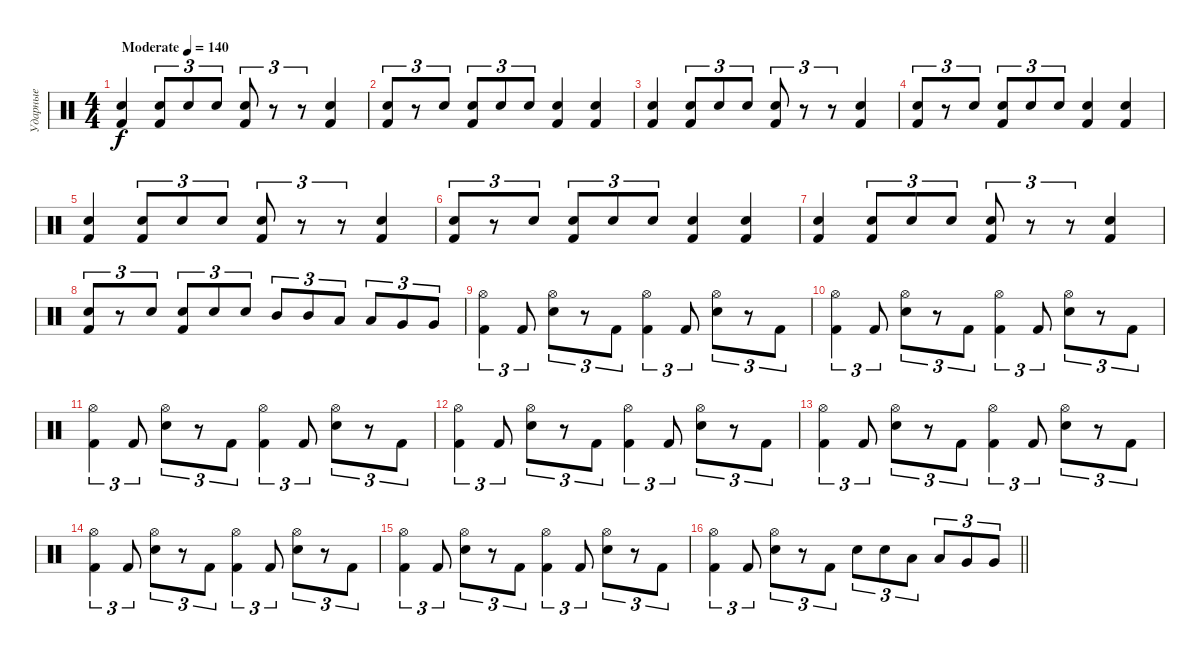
\track ("Ударные" "Ударные") {instrument percussion}
\staff {score}
\articulation defaults
\ts (4 4)
\tempo (140 "Moderate")
\clef neutral
\ks c
("Electric Snare (hit)" "Kick (hit) 2").4{dy f} ("Electric Snare (hit)" "Kick (hit) 2").8{tu (3 2)} "Electric Snare (hit)".8{tu (3 2)} "Electric Snare (hit)".8{tu (3 2)} ("Electric Snare (hit)" "Kick (hit) 2").8{tu (3 2)} r.8{tu (3 2)} r.8{tu (3 2)} ("Electric Snare (hit)" "Kick (hit) 2").4 |
("Electric Snare (hit)" "Kick (hit) 2").8{tu (3 2)} r.8{tu (3 2)} "Electric Snare (hit)".8{tu (3 2)} ("Electric Snare (hit)" "Kick (hit) 2").8{tu (3 2)} "Electric Snare (hit)".8{tu (3 2)} "Electric Snare (hit)".8{tu (3 2)} ("Electric Snare (hit)" "Kick (hit) 2").4 ("Electric Snare (hit)" "Kick (hit) 2").4 |
("Electric Snare (hit)" "Kick (hit) 2").4 ("Electric Snare (hit)" "Kick (hit) 2").8{tu (3 2)} "Electric Snare (hit)".8{tu (3 2)} "Electric Snare (hit)".8{tu (3 2)} ("Electric Snare (hit)" "Kick (hit) 2").8{tu (3 2)} r.8{tu (3 2)} r.8{tu (3 2)} ("Electric Snare (hit)" "Kick (hit) 2").4 |
("Electric Snare (hit)" "Kick (hit) 2").8{tu (3 2)} r.8{tu (3 2)} "Electric Snare (hit)".8{tu (3 2)} ("Electric Snare (hit)" "Kick (hit) 2").8{tu (3 2)} "Electric Snare (hit)".8{tu (3 2)} "Electric Snare (hit)".8{tu (3 2)} ("Electric Snare (hit)" "Kick (hit) 2").4 ("Electric Snare (hit)" "Kick (hit) 2").4 |
("Electric Snare (hit)" "Kick (hit) 2").4 ("Electric Snare (hit)" "Kick (hit) 2").8{tu (3 2)} "Electric Snare (hit)".8{tu (3 2)} "Electric Snare (hit)".8{tu (3 2)} ("Electric Snare (hit)" "Kick (hit) 2").8{tu (3 2)} r.8{tu (3 2)} r.8{tu (3 2)} ("Electric Snare (hit)" "Kick (hit) 2").4 |
("Electric Snare (hit)" "Kick (hit) 2").8{tu (3 2)} r.8{tu (3 2)} "Electric Snare (hit)".8{tu (3 2)} ("Electric Snare (hit)" "Kick (hit) 2").8{tu (3 2)} "Electric Snare (hit)".8{tu (3 2)} "Electric Snare (hit)".8{tu (3 2)} ("Electric Snare (hit)" "Kick (hit) 2").4 ("Electric Snare (hit)" "Kick (hit) 2").4 |
("Electric Snare (hit)" "Kick (hit) 2").4 ("Electric Snare (hit)" "Kick (hit) 2").8{tu (3 2)} "Electric Snare (hit)".8{tu (3 2)} "Electric Snare (hit)".8{tu (3 2)} ("Electric Snare (hit)" "Kick (hit) 2").8{tu (3 2)} r.8{tu (3 2)} r.8{tu (3 2)} ("Electric Snare (hit)" "Kick (hit) 2").4 |
("Electric Snare (hit)" "Kick (hit) 2").8{tu (3 2)} r.8{tu (3 2)} "Electric Snare (hit)".8{tu (3 2)} ("Electric Snare (hit)" "Kick (hit) 2").8{tu (3 2)} "Electric Snare (hit)".8{tu (3 2)} "Electric Snare (hit)".8{tu (3 2)} "Mid Tom (hit)".8{tu (3 2)} "Mid Tom (hit)".8{tu (3 2)} "Low Tom (hit)".8{tu (3 2)} "Low Tom (hit)".8{tu (3 2)} "Very Low Tom (hit)".8{tu (3 2)} "Very Low Tom (hit)".8{tu (3 2)} |
("Hi-Hat (open)" "Kick (hit) 2").4{tu (3 2)} "Kick (hit) 2".8{tu (3 2)} ("Hi-Hat (open)" "Electric Snare (hit)").8{tu (3 2)} r.8{tu (3 2)} "Kick (hit) 2".8{tu (3 2)} ("Hi-Hat (open)" "Kick (hit) 2").4{tu (3 2)} "Kick (hit) 2".8{tu (3 2)} ("Hi-Hat (open)" "Electric Snare (hit)").8{tu (3 2)} r.8{tu (3 2)} "Kick (hit) 2".8{tu (3 2)} |
("Hi-Hat (open)" "Kick (hit) 2").4{tu (3 2)} "Kick (hit) 2".8{tu (3 2)} ("Hi-Hat (open)" "Electric Snare (hit)").8{tu (3 2)} r.8{tu (3 2)} "Kick (hit) 2".8{tu (3 2)} ("Hi-Hat (open)" "Kick (hit) 2").4{tu (3 2)} "Kick (hit) 2".8{tu (3 2)} ("Hi-Hat (open)" "Electric Snare (hit)").8{tu (3 2)} r.8{tu (3 2)} "Kick (hit) 2".8{tu (3 2)} |
("Hi-Hat (open)" "Kick (hit) 2").4{tu (3 2)} "Kick (hit) 2".8{tu (3 2)} ("Hi-Hat (open)" "Electric Snare (hit)").8{tu (3 2)} r.8{tu (3 2)} "Kick (hit) 2".8{tu (3 2)} ("Hi-Hat (open)" "Kick (hit) 2").4{tu (3 2)} "Kick (hit) 2".8{tu (3 2)} ("Hi-Hat (open)" "Electric Snare (hit)").8{tu (3 2)} r.8{tu (3 2)} "Kick (hit) 2".8{tu (3 2)} |
("Hi-Hat (open)" "Kick (hit) 2").4{tu (3 2)} "Kick (hit) 2".8{tu (3 2)} ("Hi-Hat (open)" "Electric Snare (hit)").8{tu (3 2)} r.8{tu (3 2)} "Kick (hit) 2".8{tu (3 2)} ("Hi-Hat (open)" "Kick (hit) 2").4{tu (3 2)} "Kick (hit) 2".8{tu (3 2)} ("Hi-Hat (open)" "Electric Snare (hit)").8{tu (3 2)} r.8{tu (3 2)} "Kick (hit) 2".8{tu (3 2)} |
("Hi-Hat (open)" "Kick (hit) 2").4{tu (3 2)} "Kick (hit) 2".8{tu (3 2)} ("Hi-Hat (open)" "Electric Snare (hit)").8{tu (3 2)} r.8{tu (3 2)} "Kick (hit) 2".8{tu (3 2)} ("Hi-Hat (open)" "Kick (hit) 2").4{tu (3 2)} "Kick (hit) 2".8{tu (3 2)} ("Hi-Hat (open)" "Electric Snare (hit)").8{tu (3 2)} r.8{tu (3 2)} "Kick (hit) 2".8{tu (3 2)} |
("Hi-Hat (open)" "Kick (hit) 2").4{tu (3 2)} "Kick (hit) 2".8{tu (3 2)} ("Hi-Hat (open)" "Electric Snare (hit)").8{tu (3 2)} r.8{tu (3 2)} "Kick (hit) 2".8{tu (3 2)} ("Hi-Hat (open)" "Kick (hit) 2").4{tu (3 2)} "Kick (hit) 2".8{tu (3 2)} ("Hi-Hat (open)" "Electric Snare (hit)").8{tu (3 2)} r.8{tu (3 2)} "Kick (hit) 2".8{tu (3 2)} |
("Hi-Hat (open)" "Kick (hit) 2").4{tu (3 2)} "Kick (hit) 2".8{tu (3 2)} ("Hi-Hat (open)" "Electric Snare (hit)").8{tu (3 2)} r.8{tu (3 2)} "Kick (hit) 2".8{tu (3 2)} ("Hi-Hat (open)" "Kick (hit) 2").4{tu (3 2)} "Kick (hit) 2".8{tu (3 2)} ("Hi-Hat (open)" "Electric Snare (hit)").8{tu (3 2)} r.8{tu (3 2)} "Kick (hit) 2".8{tu (3 2)} |
\barLineRight lightlight
("Hi-Hat (open)" "Kick (hit) 2").4{tu (3 2)} "Kick (hit) 2".8{tu (3 2)} ("Hi-Hat (open)" "Electric Snare (hit)").8{tu (3 2)} r.8{tu (3 2)} "Kick (hit) 2".8{tu (3 2)} "Electric Snare (hit)".8{tu (3 2)} "Electric Snare (hit)".8{tu (3 2)} "Low Tom (hit)".8{tu (3 2)} "Low Tom (hit)".8{tu (3 2)} "Very Low Tom (hit)".8{tu (3 2)} "Very Low Tom (hit)".8{tu (3 2)}
